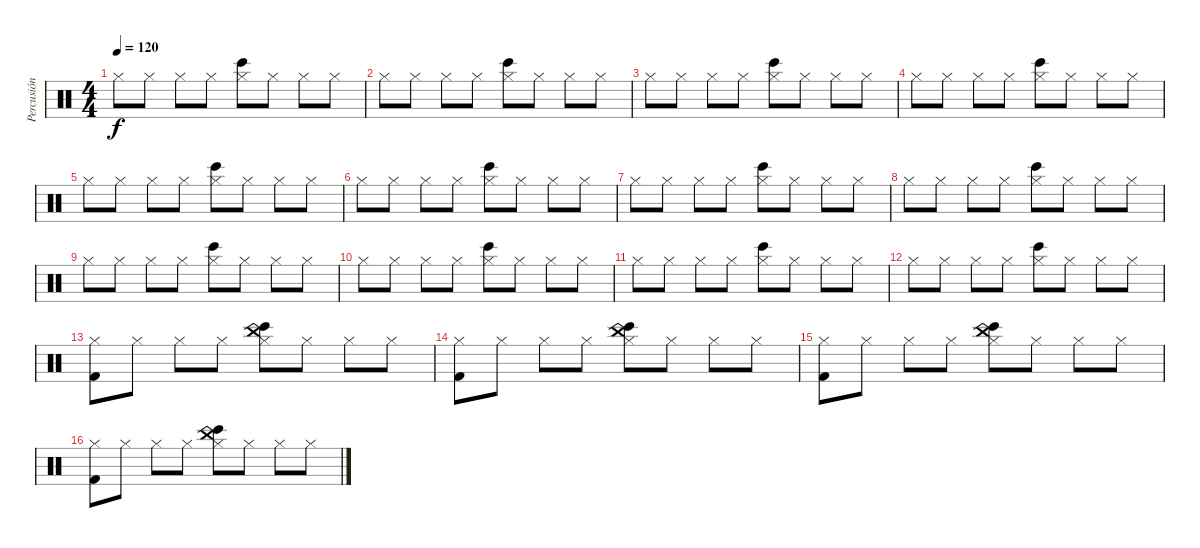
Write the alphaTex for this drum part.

\track ("Percusión" "Percusión") {instrument percussion}
\staff {score}
\articulation defaults
\ts (4 4)
\tempo 120
\clef neutral
\ks c "Hi-Hat (closed)".8{dy f} "Hi-Hat (closed)".8 "Hi-Hat (closed)".8 "Hi-Hat (closed)".8
("Hi-Hat (closed)" "Bongo High (hit)").8 "Hi-Hat (closed)".8 "Hi-Hat (closed)".8 "Hi-Hat (closed)".8 |
"Hi-Hat (closed)".8 "Hi-Hat (closed)".8 "Hi-Hat (closed)".8 "Hi-Hat (closed)".8 ("Hi-Hat (closed)" "Bongo High (hit)").8 "Hi-Hat (closed)".8 "Hi-Hat (closed)".8 "Hi-Hat (closed)".8 |
"Hi-Hat (closed)".8 "Hi-Hat (closed)".8 "Hi-Hat (closed)".8 "Hi-Hat (closed)".8 ("Hi-Hat (closed)" "Bongo High (hit)").8 "Hi-Hat (closed)".8 "Hi-Hat (closed)".8 "Hi-Hat (closed)".8 |
"Hi-Hat (closed)".8 "Hi-Hat (closed)".8 "Hi-Hat (closed)".8 "Hi-Hat (closed)".8 ("Hi-Hat (closed)" "Bongo High (hit)").8 "Hi-Hat (closed)".8 "Hi-Hat (closed)".8 "Hi-Hat (closed)".8 |
"Hi-Hat (closed)".8 "Hi-Hat (closed)".8 "Hi-Hat (closed)".8 "Hi-Hat (closed)".8 ("Hi-Hat (closed)" "Bongo High (hit)").8 "Hi-Hat (closed)".8 "Hi-Hat (closed)".8 "Hi-Hat (closed)".8 |
"Hi-Hat (closed)".8 "Hi-Hat (closed)".8 "Hi-Hat (closed)".8 "Hi-Hat (closed)".8 ("Hi-Hat (closed)" "Bongo High (hit)").8 "Hi-Hat (closed)".8 "Hi-Hat (closed)".8 "Hi-Hat (closed)".8 |
"Hi-Hat (closed)".8 "Hi-Hat (closed)".8 "Hi-Hat (closed)".8 "Hi-Hat (closed)".8 ("Hi-Hat (closed)" "Bongo High (hit)").8 "Hi-Hat (closed)".8 "Hi-Hat (closed)".8 "Hi-Hat (closed)".8 |
"Hi-Hat (closed)".8 "Hi-Hat (closed)".8 "Hi-Hat (closed)".8 "Hi-Hat (closed)".8 ("Hi-Hat (closed)" "Bongo High (hit)").8 "Hi-Hat (closed)".8 "Hi-Hat (closed)".8 "Hi-Hat (closed)".8 |
"Hi-Hat (closed)".8 "Hi-Hat (closed)".8 "Hi-Hat (closed)".8 "Hi-Hat (closed)".8 ("Hi-Hat (closed)" "Bongo High (hit)").8 "Hi-Hat (closed)".8 "Hi-Hat (closed)".8 "Hi-Hat (closed)".8 |
"Hi-Hat (closed)".8 "Hi-Hat (closed)".8 "Hi-Hat (closed)".8 "Hi-Hat (closed)".8 ("Hi-Hat (closed)" "Bongo High (hit)").8 "Hi-Hat (closed)".8 "Hi-Hat (closed)".8 "Hi-Hat (closed)".8 |
"Hi-Hat (closed)".8 "Hi-Hat (closed)".8 "Hi-Hat (closed)".8 "Hi-Hat (closed)".8 ("Hi-Hat (closed)" "Bongo High (hit)").8 "Hi-Hat (closed)".8 "Hi-Hat (closed)".8 "Hi-Hat (closed)".8 |
"Hi-Hat (closed)".8 "Hi-Hat (closed)".8 "Hi-Hat (closed)".8 "Hi-Hat (closed)".8 ("Hi-Hat (closed)" "Bongo High (hit)").8 "Hi-Hat (closed)".8 "Hi-Hat (closed)".8 "Hi-Hat (closed)".8 |
("Hi-Hat (closed)" "Kick (hit) 2").8 "Hi-Hat (closed)".8 "Hi-Hat (closed)".8 "Hi-Hat (closed)".8 ("Hi-Hat (closed)" "Bongo High (hit)" "China (hit)").8 "Hi-Hat (closed)".8 "Hi-Hat (closed)".8 "Hi-Hat (closed)".8 |
("Hi-Hat (closed)" "Kick (hit) 2").8 "Hi-Hat (closed)".8 "Hi-Hat (closed)".8 "Hi-Hat (closed)".8 ("Hi-Hat (closed)" "Bongo High (hit)" "China (hit)").8 "Hi-Hat (closed)".8 "Hi-Hat (closed)".8 "Hi-Hat (closed)".8 |
("Hi-Hat (closed)" "Kick (hit) 2").8 "Hi-Hat (closed)".8 "Hi-Hat (closed)".8 "Hi-Hat (closed)".8 ("Hi-Hat (closed)" "Bongo High (hit)" "China (hit)").8 "Hi-Hat (closed)".8 "Hi-Hat (closed)".8 "Hi-Hat (closed)".8 |
("Hi-Hat (closed)" "Kick (hit) 2").8 "Hi-Hat (closed)".8 "Hi-Hat (closed)".8 "Hi-Hat (closed)".8 ("Hi-Hat (closed)" "Bongo High (hit)" "China (hit)").8 "Hi-Hat (closed)".8 "Hi-Hat (closed)".8 "Hi-Hat (closed)".8
